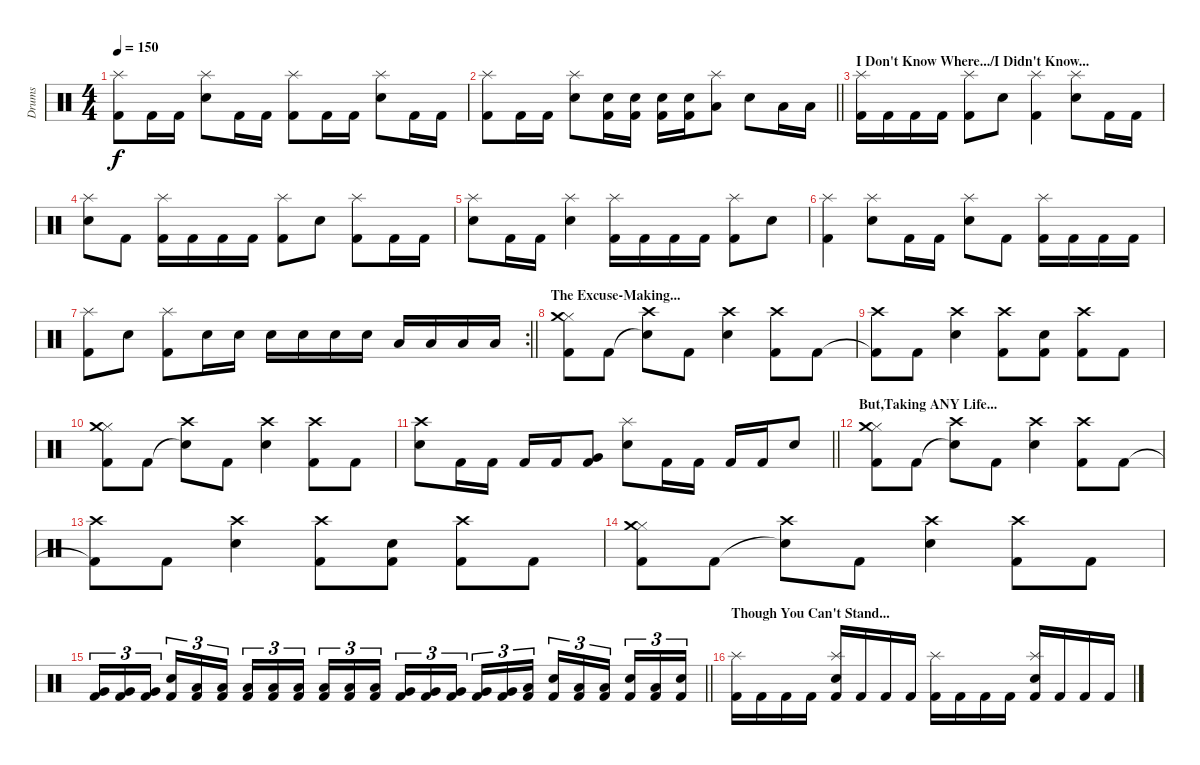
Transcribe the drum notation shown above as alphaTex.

\track ("Drums" "Drums") {instrument percussion}
\staff {score}
\articulation defaults
\ts (4 4)
\tempo 150
\clef neutral
\ks c
("Kick (hit) 2" "Splash (hit)").8{dy f} "Kick (hit) 2".16 "Kick (hit) 2".16 ("Electric Snare (hit)" "Splash (hit)").8 "Kick (hit) 2".16 "Kick (hit) 2".16 ("Kick (hit) 2" "Splash (hit)").8 "Kick (hit) 2".16 "Kick (hit) 2".16 ("Electric Snare (hit)" "Splash (hit)").8 "Kick (hit) 2".16 "Kick (hit) 2".16 |
\barLineRight lightlight
("Kick (hit) 2" "Splash (hit)").8 "Kick (hit) 2".16 "Kick (hit) 2".16 ("Electric Snare (hit)" "Splash (hit)").8 ("Kick (hit) 2" "Electric Snare (hit)").16 ("Kick (hit) 2" "Electric Snare (hit)").16 ("Kick (hit) 2" "Electric Snare (hit)").16 ("Kick (hit) 2" "Electric Snare (hit)").16 ("Low Tom (hit)" "Splash (hit)").8 "Electric Snare (hit)".8 "Low Tom (hit)".16 "Low Tom (hit)".16 |
\section ("" "I Don't Know Where.../I Didn't Know...")
("Kick (hit) 2" "Splash (hit)").16 "Kick (hit) 2".16 "Kick (hit) 2".16 "Kick (hit) 2".16 ("Kick (hit) 2" "Splash (hit)").8 "Electric Snare (hit)".8 ("Kick (hit) 2" "Splash (hit)").4 ("Electric Snare (hit)" "Splash (hit)").8 "Kick (hit) 2".16 "Kick (hit) 2".16 |
("Electric Snare (hit)" "Splash (hit)").8 "Kick (hit) 2".8 ("Kick (hit) 2" "Splash (hit)").16 "Kick (hit) 2".16 "Kick (hit) 2".16 "Kick (hit) 2".16 ("Kick (hit) 2" "Splash (hit)").8 "Electric Snare (hit)".8 ("Kick (hit) 2" "Splash (hit)").8 "Kick (hit) 2".16 "Kick (hit) 2".16 |
("Electric Snare (hit)" "Splash (hit)").8 "Kick (hit) 2".16 "Kick (hit) 2".16 ("Electric Snare (hit)" "Splash (hit)").4 ("Kick (hit) 2" "Splash (hit)").16 "Kick (hit) 2".16 "Kick (hit) 2".16 "Kick (hit) 2".16 ("Kick (hit) 2" "Splash (hit)").8 "Electric Snare (hit)".8 |
("Kick (hit) 2" "Splash (hit)").4 ("Electric Snare (hit)" "Splash (hit)").8 "Kick (hit) 2".16 "Kick (hit) 2".16 ("Electric Snare (hit)" "Splash (hit)").8 "Kick (hit) 2".8 ("Kick (hit) 2" "Splash (hit)").16 "Kick (hit) 2".16 "Kick (hit) 2".16 "Kick (hit) 2".16 |
\rc 2
\barLineRight lightlight
("Kick (hit) 2" "Splash (hit)").8 "Electric Snare (hit)".8 ("Kick (hit) 2" "Splash (hit)").8 "Electric Snare (hit)".16 "Electric Snare (hit)".16 "Electric Snare (hit)".16 "Electric Snare (hit)".16 "Electric Snare (hit)".16 "Electric Snare (hit)".16 "Low Tom (hit)".16 "Low Tom (hit)".16 "Low Floor Tom (hit)".16 "Low Floor Tom (hit)".16 |
\section ("" "The Excuse-Making...")
("Kick (hit) 2" "Hi-Hat (closed)" "Crash medium (hit)").8 "Kick (hit) 2".8 ("Snare (hit)"{t} "Crash high (hit)").8 "Kick (hit) 2".8 ("Electric Snare (hit)" "Crash high (hit)").4 ("Kick (hit) 2" "Crash high (hit)").8 "Kick (hit) 2".8 |
("Kick (hit) 2"{t} "Crash high (hit)").8 "Kick (hit) 2".8 ("Electric Snare (hit)" "Crash high (hit)").4 ("Kick (hit) 2" "Crash high (hit)").8 ("Kick (hit) 2" "Electric Snare (hit)").8 ("Kick (hit) 2" "Crash high (hit)").8 "Kick (hit) 2".8 |
("Kick (hit) 2" "Hi-Hat (closed)" "Crash medium (hit)").8 "Kick (hit) 2".8 ("Snare (hit)"{t} "Crash high (hit)").8 "Kick (hit) 2".8 ("Electric Snare (hit)" "Crash high (hit)").4 ("Kick (hit) 2" "Crash high (hit)").8 "Kick (hit) 2".8 |
\barLineRight lightlight
("Electric Snare (hit)" "Crash high (hit)").8 "Kick (hit) 2".16 "Kick (hit) 2".16 "Kick (hit) 2".16 "Kick (hit) 2".16 ("Kick (hit) 2" "Very Low Tom (hit)").8 ("Electric Snare (hit)" "Splash (hit)").8 "Kick (hit) 2".16 "Kick (hit) 2".16 "Kick (hit) 2".16 "Kick (hit) 2".16 "Electric Snare (hit)".8 |
\section ("" "But,Taking ANY Life...")
("Kick (hit) 2" "Hi-Hat (closed)" "Crash medium (hit)").8 "Kick (hit) 2".8 ("Snare (hit)"{t} "Crash high (hit)").8 "Kick (hit) 2".8 ("Electric Snare (hit)" "Crash high (hit)").4 ("Kick (hit) 2" "Crash high (hit)").8 "Kick (hit) 2".8 |
("Kick (hit) 2"{t} "Crash high (hit)").8 "Kick (hit) 2".8 ("Electric Snare (hit)" "Crash high (hit)").4 ("Kick (hit) 2" "Crash high (hit)").8 ("Kick (hit) 2" "Electric Snare (hit)").8 ("Kick (hit) 2" "Crash high (hit)").8 "Kick (hit) 2".8 |
("Kick (hit) 2" "Hi-Hat (closed)" "Crash medium (hit)").8 "Kick (hit) 2".8 ("Snare (hit)"{t} "Crash high (hit)").8 "Kick (hit) 2".8 ("Electric Snare (hit)" "Crash high (hit)").4 ("Kick (hit) 2" "Crash high (hit)").8 "Kick (hit) 2".8 |
\barLineRight lightlight
("Kick (hit) 2" "Very Low Tom (hit)").16{tu (3 2)} ("Kick (hit) 2" "Very Low Tom (hit)").16{tu (3 2)} ("Kick (hit) 2" "Very Low Tom (hit)").16{tu (3 2) beam splitsecondary} ("Kick (hit) 2" "Electric Snare (hit)").16{tu (3 2)} ("Kick (hit) 2" "Low Tom (hit)").16{tu (3 2)} ("Kick (hit) 2" "Low Tom (hit)").16{tu (3 2)} ("Kick (hit) 2" "Low Tom (hit)").16{tu (3 2)} ("Kick (hit) 2" "Low Tom (hit)").16{tu (3 2)} ("Kick (hit) 2" "Low Tom (hit)").16{tu (3 2) beam splitsecondary} ("Kick (hit) 2" "Low Tom (hit)").16{tu (3 2)} ("Kick (hit) 2" "Low Tom (hit)").16{tu (3 2)} ("Kick (hit) 2" "Low Tom (hit)").16{tu (3 2)} ("Kick (hit) 2" "Very Low Tom (hit)").16{tu (3 2)} ("Kick (hit) 2" "Very Low Tom (hit)").16{tu (3 2)} ("Kick (hit) 2" "Very Low Tom (hit)").16{tu (3 2) beam splitsecondary} ("Kick (hit) 2" "Very Low Tom (hit)").16{tu (3 2)} ("Kick (hit) 2" "Very Low Tom (hit)").16{tu (3 2)} ("Kick (hit) 2" "Low Floor Tom (hit)").16{tu (3 2)} ("Kick (hit) 2" "Electric Snare (hit)").16{tu (3 2)} ("Kick (hit) 2" "Low Floor Tom (hit)").16{tu (3 2)} ("Kick (hit) 2" "Low Floor Tom (hit)").16{tu (3 2) beam splitsecondary} ("Kick (hit) 2" "Electric Snare (hit)").16{tu (3 2)} ("Kick (hit) 2" "Low Floor Tom (hit)").16{tu (3 2)} ("Kick (hit) 2" "Electric Snare (hit)").16{tu (3 2)} |
\section ("" "Though You Can't Stand...")
("Kick (hit) 2" "Splash (hit)").16 "Kick (hit) 2".16 "Kick (hit) 2".16 "Kick (hit) 2".16 ("Kick (hit) 2" "Electric Snare (hit)" "Splash (hit)").16 "Kick (hit) 2".16 "Kick (hit) 2".16 "Kick (hit) 2".16 ("Kick (hit) 2" "Splash (hit)").16 "Kick (hit) 2".16 "Kick (hit) 2".16 "Kick (hit) 2".16 ("Kick (hit) 2" "Electric Snare (hit)" "Splash (hit)").16 "Kick (hit) 2".16 "Kick (hit) 2".16 "Kick (hit) 2".16
